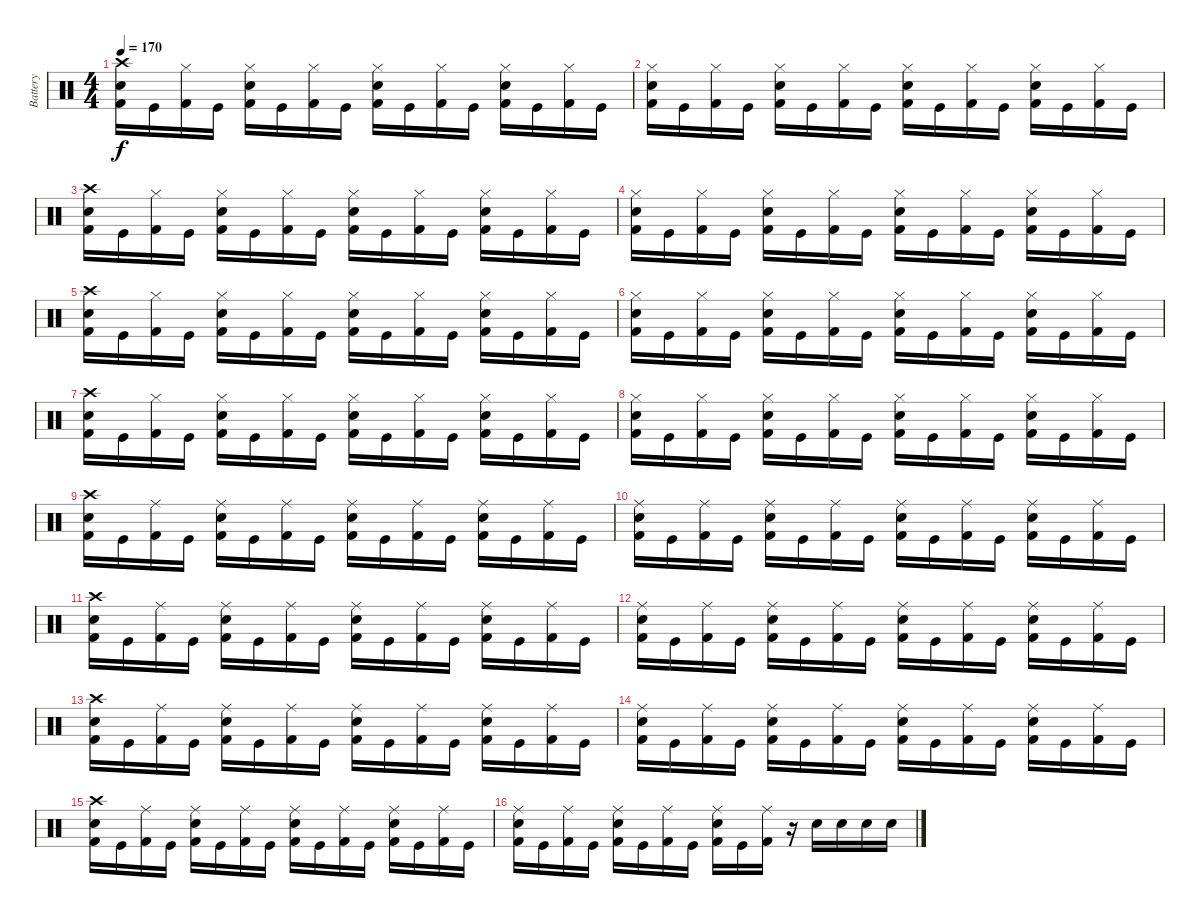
\track ("Battery" "Battery") {instrument percussion}
\staff {score}
\articulation defaults
\ts (4 4)
\tempo 170
\clef neutral
\ks c
("Crash high (hit)" "Snare (hit) 2" "Kick (hit) 2").16{dy f} "Kick (hit)".16 ("Hi-Hat (closed)" "Kick (hit) 2").16 "Kick (hit)".16 ("Hi-Hat (closed)" "Snare (hit) 2" "Kick (hit) 2").16 "Kick (hit)".16 ("Hi-Hat (closed)" "Kick (hit) 2").16 "Kick (hit)".16 ("Hi-Hat (closed)" "Snare (hit) 2" "Kick (hit) 2").16 "Kick (hit)".16 ("Hi-Hat (closed)" "Kick (hit) 2").16 "Kick (hit)".16 ("Hi-Hat (closed)" "Snare (hit) 2" "Kick (hit) 2").16 "Kick (hit)".16 ("Hi-Hat (closed)" "Kick (hit) 2").16 "Kick (hit)".16 |
("Hi-Hat (closed)" "Snare (hit) 2" "Kick (hit) 2").16 "Kick (hit)".16 ("Hi-Hat (closed)" "Kick (hit) 2").16 "Kick (hit)".16 ("Hi-Hat (closed)" "Snare (hit) 2" "Kick (hit) 2").16 "Kick (hit)".16 ("Hi-Hat (closed)" "Kick (hit) 2").16 "Kick (hit)".16 ("Hi-Hat (closed)" "Snare (hit) 2" "Kick (hit) 2").16 "Kick (hit)".16 ("Hi-Hat (closed)" "Kick (hit) 2").16 "Kick (hit)".16 ("Hi-Hat (closed)" "Snare (hit) 2" "Kick (hit) 2").16 "Kick (hit)".16 ("Hi-Hat (closed)" "Kick (hit) 2").16 "Kick (hit)".16 |
("Crash high (hit)" "Snare (hit) 2" "Kick (hit) 2").16 "Kick (hit)".16 ("Hi-Hat (closed)" "Kick (hit) 2").16 "Kick (hit)".16 ("Hi-Hat (closed)" "Snare (hit) 2" "Kick (hit) 2").16 "Kick (hit)".16 ("Hi-Hat (closed)" "Kick (hit) 2").16 "Kick (hit)".16 ("Hi-Hat (closed)" "Snare (hit) 2" "Kick (hit) 2").16 "Kick (hit)".16 ("Hi-Hat (closed)" "Kick (hit) 2").16 "Kick (hit)".16 ("Hi-Hat (closed)" "Snare (hit) 2" "Kick (hit) 2").16 "Kick (hit)".16 ("Hi-Hat (closed)" "Kick (hit) 2").16 "Kick (hit)".16 |
("Hi-Hat (closed)" "Snare (hit) 2" "Kick (hit) 2").16 "Kick (hit)".16 ("Hi-Hat (closed)" "Kick (hit) 2").16 "Kick (hit)".16 ("Hi-Hat (closed)" "Snare (hit) 2" "Kick (hit) 2").16 "Kick (hit)".16 ("Hi-Hat (closed)" "Kick (hit) 2").16 "Kick (hit)".16 ("Hi-Hat (closed)" "Snare (hit) 2" "Kick (hit) 2").16 "Kick (hit)".16 ("Hi-Hat (closed)" "Kick (hit) 2").16 "Kick (hit)".16 ("Hi-Hat (closed)" "Snare (hit) 2" "Kick (hit) 2").16 "Kick (hit)".16 ("Hi-Hat (closed)" "Kick (hit) 2").16 "Kick (hit)".16 |
("Crash high (hit)" "Snare (hit) 2" "Kick (hit) 2").16 "Kick (hit)".16 ("Hi-Hat (closed)" "Kick (hit) 2").16 "Kick (hit)".16 ("Hi-Hat (closed)" "Snare (hit) 2" "Kick (hit) 2").16 "Kick (hit)".16 ("Hi-Hat (closed)" "Kick (hit) 2").16 "Kick (hit)".16 ("Hi-Hat (closed)" "Snare (hit) 2" "Kick (hit) 2").16 "Kick (hit)".16 ("Hi-Hat (closed)" "Kick (hit) 2").16 "Kick (hit)".16 ("Hi-Hat (closed)" "Snare (hit) 2" "Kick (hit) 2").16 "Kick (hit)".16 ("Hi-Hat (closed)" "Kick (hit) 2").16 "Kick (hit)".16 |
("Hi-Hat (closed)" "Snare (hit) 2" "Kick (hit) 2").16 "Kick (hit)".16 ("Hi-Hat (closed)" "Kick (hit) 2").16 "Kick (hit)".16 ("Hi-Hat (closed)" "Snare (hit) 2" "Kick (hit) 2").16 "Kick (hit)".16 ("Hi-Hat (closed)" "Kick (hit) 2").16 "Kick (hit)".16 ("Hi-Hat (closed)" "Snare (hit) 2" "Kick (hit) 2").16 "Kick (hit)".16 ("Hi-Hat (closed)" "Kick (hit) 2").16 "Kick (hit)".16 ("Hi-Hat (closed)" "Snare (hit) 2" "Kick (hit) 2").16 "Kick (hit)".16 ("Hi-Hat (closed)" "Kick (hit) 2").16 "Kick (hit)".16 |
("Crash high (hit)" "Snare (hit) 2" "Kick (hit) 2").16 "Kick (hit)".16 ("Hi-Hat (closed)" "Kick (hit) 2").16 "Kick (hit)".16 ("Hi-Hat (closed)" "Snare (hit) 2" "Kick (hit) 2").16 "Kick (hit)".16 ("Hi-Hat (closed)" "Kick (hit) 2").16 "Kick (hit)".16 ("Hi-Hat (closed)" "Snare (hit) 2" "Kick (hit) 2").16 "Kick (hit)".16 ("Hi-Hat (closed)" "Kick (hit) 2").16 "Kick (hit)".16 ("Hi-Hat (closed)" "Snare (hit) 2" "Kick (hit) 2").16 "Kick (hit)".16 ("Hi-Hat (closed)" "Kick (hit) 2").16 "Kick (hit)".16 |
("Hi-Hat (closed)" "Snare (hit) 2" "Kick (hit) 2").16 "Kick (hit)".16 ("Hi-Hat (closed)" "Kick (hit) 2").16 "Kick (hit)".16 ("Hi-Hat (closed)" "Snare (hit) 2" "Kick (hit) 2").16 "Kick (hit)".16 ("Hi-Hat (closed)" "Kick (hit) 2").16 "Kick (hit)".16 ("Hi-Hat (closed)" "Snare (hit) 2" "Kick (hit) 2").16 "Kick (hit)".16 ("Hi-Hat (closed)" "Kick (hit) 2").16 "Kick (hit)".16 ("Hi-Hat (closed)" "Snare (hit) 2" "Kick (hit) 2").16 "Kick (hit)".16 ("Hi-Hat (closed)" "Kick (hit) 2").16 "Kick (hit)".16 |
("Crash high (hit)" "Snare (hit) 2" "Kick (hit) 2").16 "Kick (hit)".16 ("Ride (middle)" "Kick (hit) 2").16 "Kick (hit)".16 ("Ride (middle)" "Snare (hit) 2" "Kick (hit) 2").16 "Kick (hit)".16 ("Ride (middle)" "Kick (hit) 2").16 "Kick (hit)".16 ("Ride (middle)" "Snare (hit) 2" "Kick (hit) 2").16 "Kick (hit)".16 ("Ride (middle)" "Kick (hit) 2").16 "Kick (hit)".16 ("Ride (middle)" "Snare (hit) 2" "Kick (hit) 2").16 "Kick (hit)".16 ("Ride (middle)" "Kick (hit) 2").16 "Kick (hit)".16 |
("Ride (middle)" "Snare (hit) 2" "Kick (hit) 2").16 "Kick (hit)".16 ("Ride (middle)" "Kick (hit) 2").16 "Kick (hit)".16 ("Ride (middle)" "Snare (hit) 2" "Kick (hit) 2").16 "Kick (hit)".16 ("Ride (middle)" "Kick (hit) 2").16 "Kick (hit)".16 ("Ride (middle)" "Snare (hit) 2" "Kick (hit) 2").16 "Kick (hit)".16 ("Ride (middle)" "Kick (hit) 2").16 "Kick (hit)".16 ("Ride (middle)" "Snare (hit) 2" "Kick (hit) 2").16 "Kick (hit)".16 ("Ride (middle)" "Kick (hit) 2").16 "Kick (hit)".16 |
("Crash high (hit)" "Snare (hit) 2" "Kick (hit) 2").16 "Kick (hit)".16 ("Ride (middle)" "Kick (hit) 2").16 "Kick (hit)".16 ("Ride (middle)" "Snare (hit) 2" "Kick (hit) 2").16 "Kick (hit)".16 ("Ride (middle)" "Kick (hit) 2").16 "Kick (hit)".16 ("Ride (middle)" "Snare (hit) 2" "Kick (hit) 2").16 "Kick (hit)".16 ("Ride (middle)" "Kick (hit) 2").16 "Kick (hit)".16 ("Ride (middle)" "Snare (hit) 2" "Kick (hit) 2").16 "Kick (hit)".16 ("Ride (middle)" "Kick (hit) 2").16 "Kick (hit)".16 |
("Ride (middle)" "Snare (hit) 2" "Kick (hit) 2").16 "Kick (hit)".16 ("Ride (middle)" "Kick (hit) 2").16 "Kick (hit)".16 ("Ride (middle)" "Snare (hit) 2" "Kick (hit) 2").16 "Kick (hit)".16 ("Ride (middle)" "Kick (hit) 2").16 "Kick (hit)".16 ("Ride (middle)" "Snare (hit) 2" "Kick (hit) 2").16 "Kick (hit)".16 ("Ride (middle)" "Kick (hit) 2").16 "Kick (hit)".16 ("Ride (middle)" "Snare (hit) 2" "Kick (hit) 2").16 "Kick (hit)".16 ("Ride (middle)" "Kick (hit) 2").16 "Kick (hit)".16 |
("Crash high (hit)" "Snare (hit) 2" "Kick (hit) 2").16 "Kick (hit)".16 ("Ride (middle)" "Kick (hit) 2").16 "Kick (hit)".16 ("Ride (middle)" "Snare (hit) 2" "Kick (hit) 2").16 "Kick (hit)".16 ("Ride (middle)" "Kick (hit) 2").16 "Kick (hit)".16 ("Ride (middle)" "Snare (hit) 2" "Kick (hit) 2").16 "Kick (hit)".16 ("Ride (middle)" "Kick (hit) 2").16 "Kick (hit)".16 ("Ride (middle)" "Snare (hit) 2" "Kick (hit) 2").16 "Kick (hit)".16 ("Ride (middle)" "Kick (hit) 2").16 "Kick (hit)".16 |
("Ride (middle)" "Snare (hit) 2" "Kick (hit) 2").16 "Kick (hit)".16 ("Ride (middle)" "Kick (hit) 2").16 "Kick (hit)".16 ("Ride (middle)" "Snare (hit) 2" "Kick (hit) 2").16 "Kick (hit)".16 ("Ride (middle)" "Kick (hit) 2").16 "Kick (hit)".16 ("Ride (middle)" "Snare (hit) 2" "Kick (hit) 2").16 "Kick (hit)".16 ("Ride (middle)" "Kick (hit) 2").16 "Kick (hit)".16 ("Ride (middle)" "Snare (hit) 2" "Kick (hit) 2").16 "Kick (hit)".16 ("Ride (middle)" "Kick (hit) 2").16 "Kick (hit)".16 |
("Crash high (hit)" "Snare (hit) 2" "Kick (hit) 2").16 "Kick (hit)".16 ("Ride (middle)" "Kick (hit) 2").16 "Kick (hit)".16 ("Ride (middle)" "Snare (hit) 2" "Kick (hit) 2").16 "Kick (hit)".16 ("Ride (middle)" "Kick (hit) 2").16 "Kick (hit)".16 ("Ride (middle)" "Snare (hit) 2" "Kick (hit) 2").16 "Kick (hit)".16 ("Ride (middle)" "Kick (hit) 2").16 "Kick (hit)".16 ("Ride (middle)" "Snare (hit) 2" "Kick (hit) 2").16 "Kick (hit)".16 ("Ride (middle)" "Kick (hit) 2").16 "Kick (hit)".16 |
("Ride (middle)" "Snare (hit) 2" "Kick (hit) 2").16 "Kick (hit)".16 ("Ride (middle)" "Kick (hit) 2").16 "Kick (hit)".16 ("Ride (middle)" "Snare (hit) 2" "Kick (hit) 2").16 "Kick (hit)".16 ("Ride (middle)" "Kick (hit) 2").16 "Kick (hit)".16 ("Ride (middle)" "Snare (hit) 2" "Kick (hit) 2").16 "Kick (hit)".16 ("Ride (middle)" "Kick (hit) 2").16 r.16 "Snare (hit) 2".16 "Snare (hit) 2".16 "Snare (hit) 2".16 "Snare (hit) 2".16
